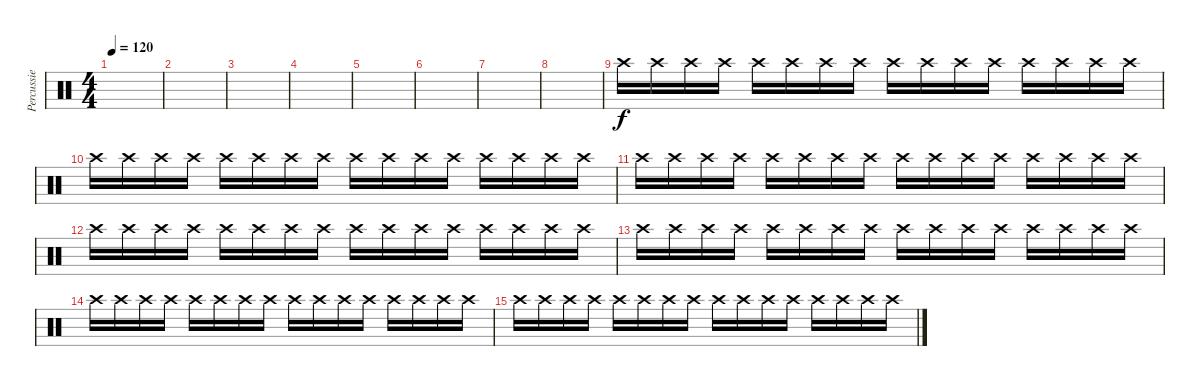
\track ("Percussie" "Percussie") {instrument percussion}
\staff {score}
\articulation defaults
\ts (4 4)
\tempo 120
\clef neutral
\ks c
|
|
|
|
|
|
|
|
"Crash high (hit)".16 "Crash high (hit)".16 "Crash high (hit)".16 "Crash high (hit)".16 "Crash high (hit)".16 "Crash high (hit)".16 "Crash high (hit)".16 "Crash high (hit)".16 "Crash high (hit)".16 "Crash high (hit)".16 "Crash high (hit)".16 "Crash high (hit)".16 "Crash high (hit)".16 "Crash high (hit)".16 "Crash high (hit)".16 "Crash high (hit)".16 |
"Crash high (hit)".16 "Crash high (hit)".16 "Crash high (hit)".16 "Crash high (hit)".16 "Crash high (hit)".16 "Crash high (hit)".16 "Crash high (hit)".16 "Crash high (hit)".16 "Crash high (hit)".16 "Crash high (hit)".16 "Crash high (hit)".16 "Crash high (hit)".16 "Crash high (hit)".16 "Crash high (hit)".16 "Crash high (hit)".16 "Crash high (hit)".16 |
"Crash high (hit)".16 "Crash high (hit)".16 "Crash high (hit)".16 "Crash high (hit)".16 "Crash high (hit)".16 "Crash high (hit)".16 "Crash high (hit)".16 "Crash high (hit)".16 "Crash high (hit)".16 "Crash high (hit)".16 "Crash high (hit)".16 "Crash high (hit)".16 "Crash high (hit)".16 "Crash high (hit)".16 "Crash high (hit)".16 "Crash high (hit)".16 |
"Crash high (hit)".16 "Crash high (hit)".16 "Crash high (hit)".16 "Crash high (hit)".16 "Crash high (hit)".16 "Crash high (hit)".16 "Crash high (hit)".16 "Crash high (hit)".16 "Crash high (hit)".16 "Crash high (hit)".16 "Crash high (hit)".16 "Crash high (hit)".16 "Crash high (hit)".16 "Crash high (hit)".16 "Crash high (hit)".16 "Crash high (hit)".16 |
"Crash high (hit)".16 "Crash high (hit)".16 "Crash high (hit)".16 "Crash high (hit)".16 "Crash high (hit)".16 "Crash high (hit)".16 "Crash high (hit)".16 "Crash high (hit)".16 "Crash high (hit)".16 "Crash high (hit)".16 "Crash high (hit)".16 "Crash high (hit)".16 "Crash high (hit)".16 "Crash high (hit)".16 "Crash high (hit)".16 "Crash high (hit)".16 |
"Crash high (hit)".16 "Crash high (hit)".16 "Crash high (hit)".16 "Crash high (hit)".16 "Crash high (hit)".16 "Crash high (hit)".16 "Crash high (hit)".16 "Crash high (hit)".16 "Crash high (hit)".16 "Crash high (hit)".16 "Crash high (hit)".16 "Crash high (hit)".16 "Crash high (hit)".16 "Crash high (hit)".16 "Crash high (hit)".16 "Crash high (hit)".16 |
"Crash high (hit)".16 "Crash high (hit)".16 "Crash high (hit)".16 "Crash high (hit)".16 "Crash high (hit)".16 "Crash high (hit)".16 "Crash high (hit)".16 "Crash high (hit)".16 "Crash high (hit)".16 "Crash high (hit)".16 "Crash high (hit)".16 "Crash high (hit)".16 "Crash high (hit)".16 "Crash high (hit)".16 "Crash high (hit)".16 "Crash high (hit)".16
